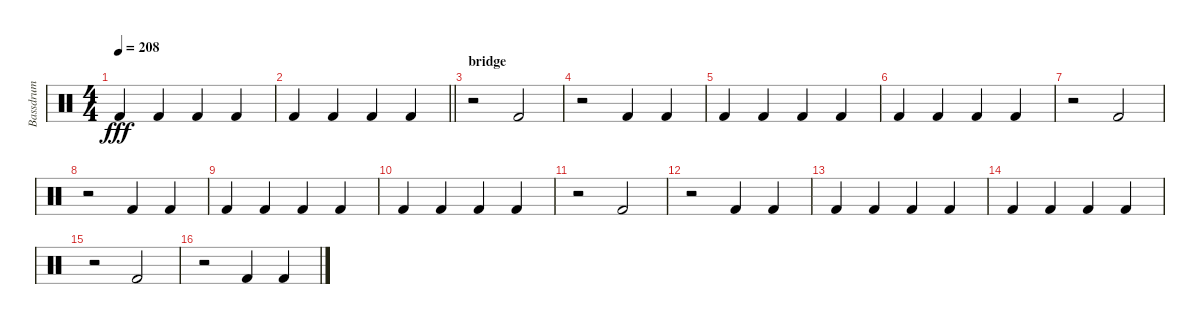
\track ("Bassdrum" "Bassdrum") {instrument percussion}
\staff {score}
\articulation defaults
\ts (4 4)
\tempo 208
\clef neutral
\ks c "Kick (hit) 2".4{dy fff} "Kick (hit) 2".4 "Kick (hit) 2".4 "Kick (hit) 2".4
|
\barLineRight lightlight "Kick (hit) 2".4 "Kick (hit) 2".4 "Kick (hit) 2".4 "Kick (hit) 2".4
|
\section ("" "bridge")
r.2 "Kick (hit) 2".2 |
r.2 "Kick (hit) 2".4 "Kick (hit) 2".4 |
"Kick (hit) 2".4 "Kick (hit) 2".4 "Kick (hit) 2".4 "Kick (hit) 2".4 |
"Kick (hit) 2".4 "Kick (hit) 2".4 "Kick (hit) 2".4 "Kick (hit) 2".4 |
r.2 "Kick (hit) 2".2 |
r.2 "Kick (hit) 2".4 "Kick (hit) 2".4 |
"Kick (hit) 2".4 "Kick (hit) 2".4 "Kick (hit) 2".4 "Kick (hit) 2".4 |
"Kick (hit) 2".4 "Kick (hit) 2".4 "Kick (hit) 2".4 "Kick (hit) 2".4 |
r.2 "Kick (hit) 2".2 |
r.2 "Kick (hit) 2".4 "Kick (hit) 2".4 |
"Kick (hit) 2".4 "Kick (hit) 2".4 "Kick (hit) 2".4 "Kick (hit) 2".4 |
"Kick (hit) 2".4 "Kick (hit) 2".4 "Kick (hit) 2".4 "Kick (hit) 2".4 |
r.2 "Kick (hit) 2".2 |
r.2 "Kick (hit) 2".4 "Kick (hit) 2".4
